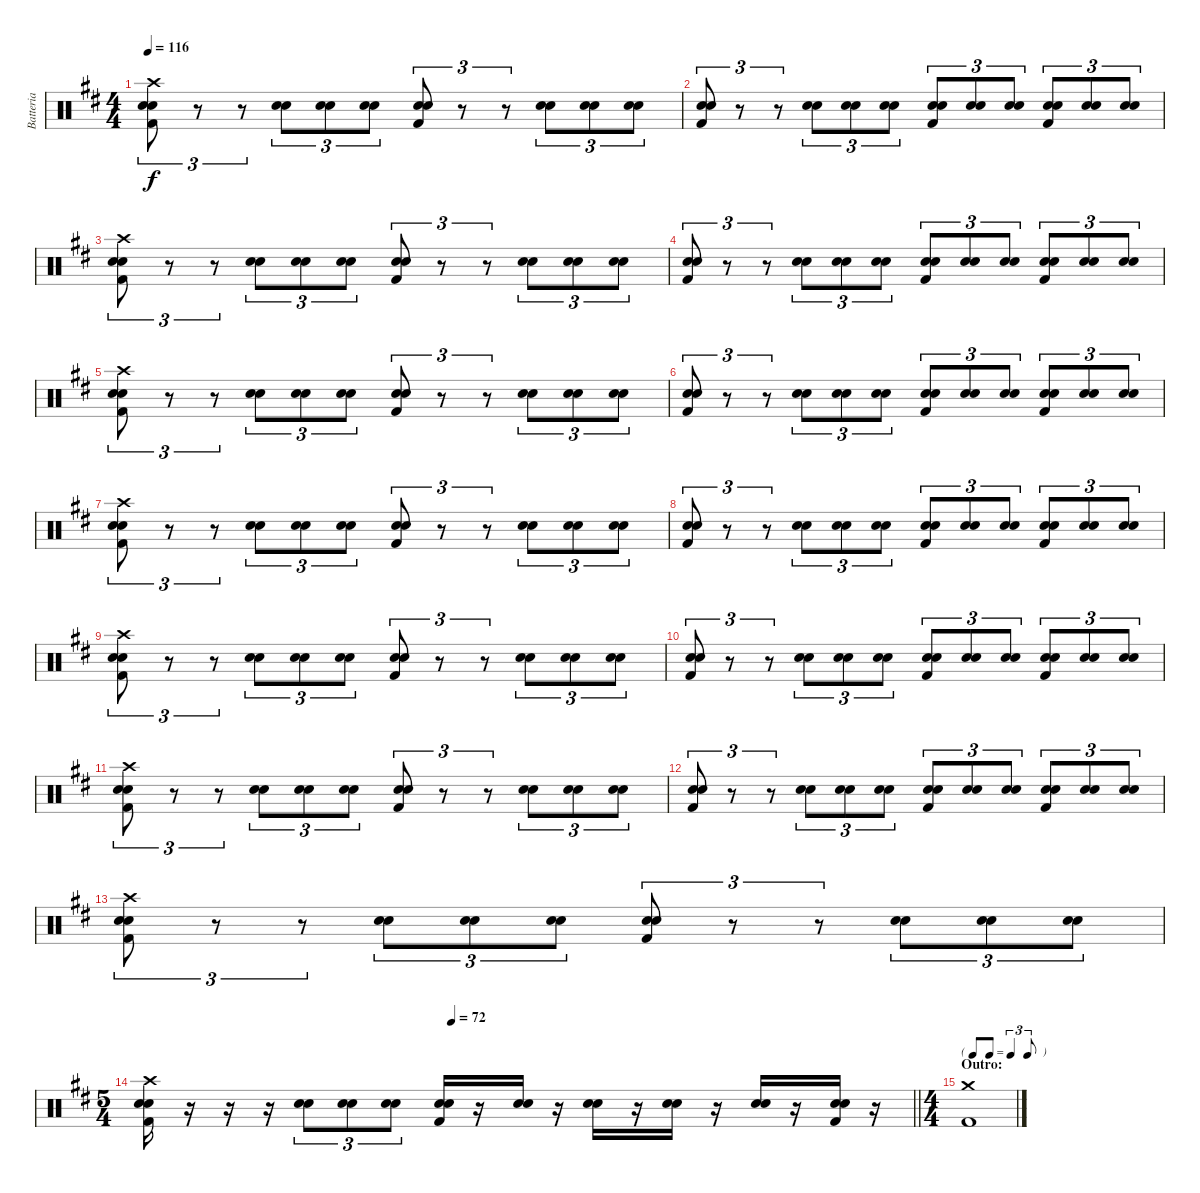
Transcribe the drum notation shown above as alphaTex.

\track ("Batteria" "Batteria") {instrument percussion}
\staff {score}
\articulation defaults
\ts (4 4)
\tempo 116
\clef neutral
\ks d
("Kick (hit) 2" "Snare (hit) 2" "Snare (hit) 2" "Crash high (hit)").8{tu (3 2) dy f} r.8{tu (3 2)} r.8{tu (3 2)} ("Snare (hit) 2" "Snare (hit) 2").8{tu (3 2)} ("Snare (hit) 2" "Snare (hit) 2").8{tu (3 2)} ("Snare (hit) 2" "Snare (hit) 2").8{tu (3 2)} ("Kick (hit) 2" "Snare (hit) 2" "Snare (hit) 2").8{tu (3 2)} r.8{tu (3 2)} r.8{tu (3 2)} ("Snare (hit) 2" "Snare (hit) 2").8{tu (3 2)} ("Snare (hit) 2" "Snare (hit) 2").8{tu (3 2)} ("Snare (hit) 2" "Snare (hit) 2").8{tu (3 2)} |
("Kick (hit) 2" "Snare (hit) 2" "Snare (hit) 2").8{tu (3 2)} r.8{tu (3 2)} r.8{tu (3 2)} ("Snare (hit) 2" "Snare (hit) 2").8{tu (3 2)} ("Snare (hit) 2" "Snare (hit) 2").8{tu (3 2)} ("Snare (hit) 2" "Snare (hit) 2").8{tu (3 2)} ("Kick (hit) 2" "Snare (hit) 2" "Snare (hit) 2").8{tu (3 2)} ("Snare (hit) 2" "Snare (hit) 2").8{tu (3 2)} ("Snare (hit) 2" "Snare (hit) 2").8{tu (3 2)} ("Kick (hit) 2" "Snare (hit) 2" "Snare (hit) 2").8{tu (3 2)} ("Snare (hit) 2" "Snare (hit) 2").8{tu (3 2)} ("Snare (hit) 2" "Snare (hit) 2").8{tu (3 2)} |
("Kick (hit) 2" "Snare (hit) 2" "Snare (hit) 2" "Crash high (hit)").8{tu (3 2)} r.8{tu (3 2)} r.8{tu (3 2)} ("Snare (hit) 2" "Snare (hit) 2").8{tu (3 2)} ("Snare (hit) 2" "Snare (hit) 2").8{tu (3 2)} ("Snare (hit) 2" "Snare (hit) 2").8{tu (3 2)} ("Kick (hit) 2" "Snare (hit) 2" "Snare (hit) 2").8{tu (3 2)} r.8{tu (3 2)} r.8{tu (3 2)} ("Snare (hit) 2" "Snare (hit) 2").8{tu (3 2)} ("Snare (hit) 2" "Snare (hit) 2").8{tu (3 2)} ("Snare (hit) 2" "Snare (hit) 2").8{tu (3 2)} |
("Kick (hit) 2" "Snare (hit) 2" "Snare (hit) 2").8{tu (3 2)} r.8{tu (3 2)} r.8{tu (3 2)} ("Snare (hit) 2" "Snare (hit) 2").8{tu (3 2)} ("Snare (hit) 2" "Snare (hit) 2").8{tu (3 2)} ("Snare (hit) 2" "Snare (hit) 2").8{tu (3 2)} ("Kick (hit) 2" "Snare (hit) 2" "Snare (hit) 2").8{tu (3 2)} ("Snare (hit) 2" "Snare (hit) 2").8{tu (3 2)} ("Snare (hit) 2" "Snare (hit) 2").8{tu (3 2)} ("Kick (hit) 2" "Snare (hit) 2" "Snare (hit) 2").8{tu (3 2)} ("Snare (hit) 2" "Snare (hit) 2").8{tu (3 2)} ("Snare (hit) 2" "Snare (hit) 2").8{tu (3 2)} |
("Kick (hit) 2" "Snare (hit) 2" "Snare (hit) 2" "Crash high (hit)").8{tu (3 2)} r.8{tu (3 2)} r.8{tu (3 2)} ("Snare (hit) 2" "Snare (hit) 2").8{tu (3 2)} ("Snare (hit) 2" "Snare (hit) 2").8{tu (3 2)} ("Snare (hit) 2" "Snare (hit) 2").8{tu (3 2)} ("Kick (hit) 2" "Snare (hit) 2" "Snare (hit) 2").8{tu (3 2)} r.8{tu (3 2)} r.8{tu (3 2)} ("Snare (hit) 2" "Snare (hit) 2").8{tu (3 2)} ("Snare (hit) 2" "Snare (hit) 2").8{tu (3 2)} ("Snare (hit) 2" "Snare (hit) 2").8{tu (3 2)} |
("Kick (hit) 2" "Snare (hit) 2" "Snare (hit) 2").8{tu (3 2)} r.8{tu (3 2)} r.8{tu (3 2)} ("Snare (hit) 2" "Snare (hit) 2").8{tu (3 2)} ("Snare (hit) 2" "Snare (hit) 2").8{tu (3 2)} ("Snare (hit) 2" "Snare (hit) 2").8{tu (3 2)} ("Kick (hit) 2" "Snare (hit) 2" "Snare (hit) 2").8{tu (3 2)} ("Snare (hit) 2" "Snare (hit) 2").8{tu (3 2)} ("Snare (hit) 2" "Snare (hit) 2").8{tu (3 2)} ("Kick (hit) 2" "Snare (hit) 2" "Snare (hit) 2").8{tu (3 2)} ("Snare (hit) 2" "Snare (hit) 2").8{tu (3 2)} ("Snare (hit) 2" "Snare (hit) 2").8{tu (3 2)} |
("Kick (hit) 2" "Snare (hit) 2" "Snare (hit) 2" "Crash high (hit)").8{tu (3 2)} r.8{tu (3 2)} r.8{tu (3 2)} ("Snare (hit) 2" "Snare (hit) 2").8{tu (3 2)} ("Snare (hit) 2" "Snare (hit) 2").8{tu (3 2)} ("Snare (hit) 2" "Snare (hit) 2").8{tu (3 2)} ("Kick (hit) 2" "Snare (hit) 2" "Snare (hit) 2").8{tu (3 2)} r.8{tu (3 2)} r.8{tu (3 2)} ("Snare (hit) 2" "Snare (hit) 2").8{tu (3 2)} ("Snare (hit) 2" "Snare (hit) 2").8{tu (3 2)} ("Snare (hit) 2" "Snare (hit) 2").8{tu (3 2)} |
("Kick (hit) 2" "Snare (hit) 2" "Snare (hit) 2").8{tu (3 2)} r.8{tu (3 2)} r.8{tu (3 2)} ("Snare (hit) 2" "Snare (hit) 2").8{tu (3 2)} ("Snare (hit) 2" "Snare (hit) 2").8{tu (3 2)} ("Snare (hit) 2" "Snare (hit) 2").8{tu (3 2)} ("Kick (hit) 2" "Snare (hit) 2" "Snare (hit) 2").8{tu (3 2)} ("Snare (hit) 2" "Snare (hit) 2").8{tu (3 2)} ("Snare (hit) 2" "Snare (hit) 2").8{tu (3 2)} ("Kick (hit) 2" "Snare (hit) 2" "Snare (hit) 2").8{tu (3 2)} ("Snare (hit) 2" "Snare (hit) 2").8{tu (3 2)} ("Snare (hit) 2" "Snare (hit) 2").8{tu (3 2)} |
("Kick (hit) 2" "Snare (hit) 2" "Snare (hit) 2" "Crash high (hit)").8{tu (3 2)} r.8{tu (3 2)} r.8{tu (3 2)} ("Snare (hit) 2" "Snare (hit) 2").8{tu (3 2)} ("Snare (hit) 2" "Snare (hit) 2").8{tu (3 2)} ("Snare (hit) 2" "Snare (hit) 2").8{tu (3 2)} ("Kick (hit) 2" "Snare (hit) 2" "Snare (hit) 2").8{tu (3 2)} r.8{tu (3 2)} r.8{tu (3 2)} ("Snare (hit) 2" "Snare (hit) 2").8{tu (3 2)} ("Snare (hit) 2" "Snare (hit) 2").8{tu (3 2)} ("Snare (hit) 2" "Snare (hit) 2").8{tu (3 2)} |
("Kick (hit) 2" "Snare (hit) 2" "Snare (hit) 2").8{tu (3 2)} r.8{tu (3 2)} r.8{tu (3 2)} ("Snare (hit) 2" "Snare (hit) 2").8{tu (3 2)} ("Snare (hit) 2" "Snare (hit) 2").8{tu (3 2)} ("Snare (hit) 2" "Snare (hit) 2").8{tu (3 2)} ("Kick (hit) 2" "Snare (hit) 2" "Snare (hit) 2").8{tu (3 2)} ("Snare (hit) 2" "Snare (hit) 2").8{tu (3 2)} ("Snare (hit) 2" "Snare (hit) 2").8{tu (3 2)} ("Kick (hit) 2" "Snare (hit) 2" "Snare (hit) 2").8{tu (3 2)} ("Snare (hit) 2" "Snare (hit) 2").8{tu (3 2)} ("Snare (hit) 2" "Snare (hit) 2").8{tu (3 2)} |
("Kick (hit) 2" "Snare (hit) 2" "Snare (hit) 2" "Crash high (hit)").8{tu (3 2)} r.8{tu (3 2)} r.8{tu (3 2)} ("Snare (hit) 2" "Snare (hit) 2").8{tu (3 2)} ("Snare (hit) 2" "Snare (hit) 2").8{tu (3 2)} ("Snare (hit) 2" "Snare (hit) 2").8{tu (3 2)} ("Kick (hit) 2" "Snare (hit) 2" "Snare (hit) 2").8{tu (3 2)} r.8{tu (3 2)} r.8{tu (3 2)} ("Snare (hit) 2" "Snare (hit) 2").8{tu (3 2)} ("Snare (hit) 2" "Snare (hit) 2").8{tu (3 2)} ("Snare (hit) 2" "Snare (hit) 2").8{tu (3 2)} |
("Kick (hit) 2" "Snare (hit) 2" "Snare (hit) 2").8{tu (3 2)} r.8{tu (3 2)} r.8{tu (3 2)} ("Snare (hit) 2" "Snare (hit) 2").8{tu (3 2)} ("Snare (hit) 2" "Snare (hit) 2").8{tu (3 2)} ("Snare (hit) 2" "Snare (hit) 2").8{tu (3 2)} ("Kick (hit) 2" "Snare (hit) 2" "Snare (hit) 2").8{tu (3 2)} ("Snare (hit) 2" "Snare (hit) 2").8{tu (3 2)} ("Snare (hit) 2" "Snare (hit) 2").8{tu (3 2)} ("Kick (hit) 2" "Snare (hit) 2" "Snare (hit) 2").8{tu (3 2)} ("Snare (hit) 2" "Snare (hit) 2").8{tu (3 2)} ("Snare (hit) 2" "Snare (hit) 2").8{tu (3 2)} |
("Kick (hit) 2" "Snare (hit) 2" "Snare (hit) 2" "Crash high (hit)").8{tu (3 2)} r.8{tu (3 2)} r.8{tu (3 2)} ("Snare (hit) 2" "Snare (hit) 2").8{tu (3 2)} ("Snare (hit) 2" "Snare (hit) 2").8{tu (3 2)} ("Snare (hit) 2" "Snare (hit) 2").8{tu (3 2)} ("Kick (hit) 2" "Snare (hit) 2" "Snare (hit) 2").8{tu (3 2)} r.8{tu (3 2)} r.8{tu (3 2)} ("Snare (hit) 2" "Snare (hit) 2").8{tu (3 2)} ("Snare (hit) 2" "Snare (hit) 2").8{tu (3 2)} ("Snare (hit) 2" "Snare (hit) 2").8{tu (3 2)} |
\ts (5 4)
\tempo (72 0.4)
\barLineRight lightlight
("Kick (hit) 2" "Snare (hit) 2" "Snare (hit) 2" "Crash high (hit)").16 r.16 r.16 r.16 ("Snare (hit) 2" "Snare (hit) 2").8{tu (3 2)} ("Snare (hit) 2" "Snare (hit) 2").8{tu (3 2)} ("Snare (hit) 2" "Snare (hit) 2").8{tu (3 2)} ("Kick (hit) 2" "Snare (hit) 2" "Snare (hit) 2").16 r.16 ("Snare (hit) 2" "Snare (hit) 2").16 r.16 ("Snare (hit) 2" "Snare (hit) 2").16 r.16 ("Snare (hit) 2" "Snare (hit) 2").16 r.16 ("Snare (hit) 2" "Snare (hit) 2").16 r.16 ("Kick (hit) 2" "Snare (hit) 2" "Snare (hit) 2").16 r.16 |
\ts (4 4)
\tf triplet8th
\section ("" "Outro:")
("Kick (hit) 2" "Crash medium (hit)").1
